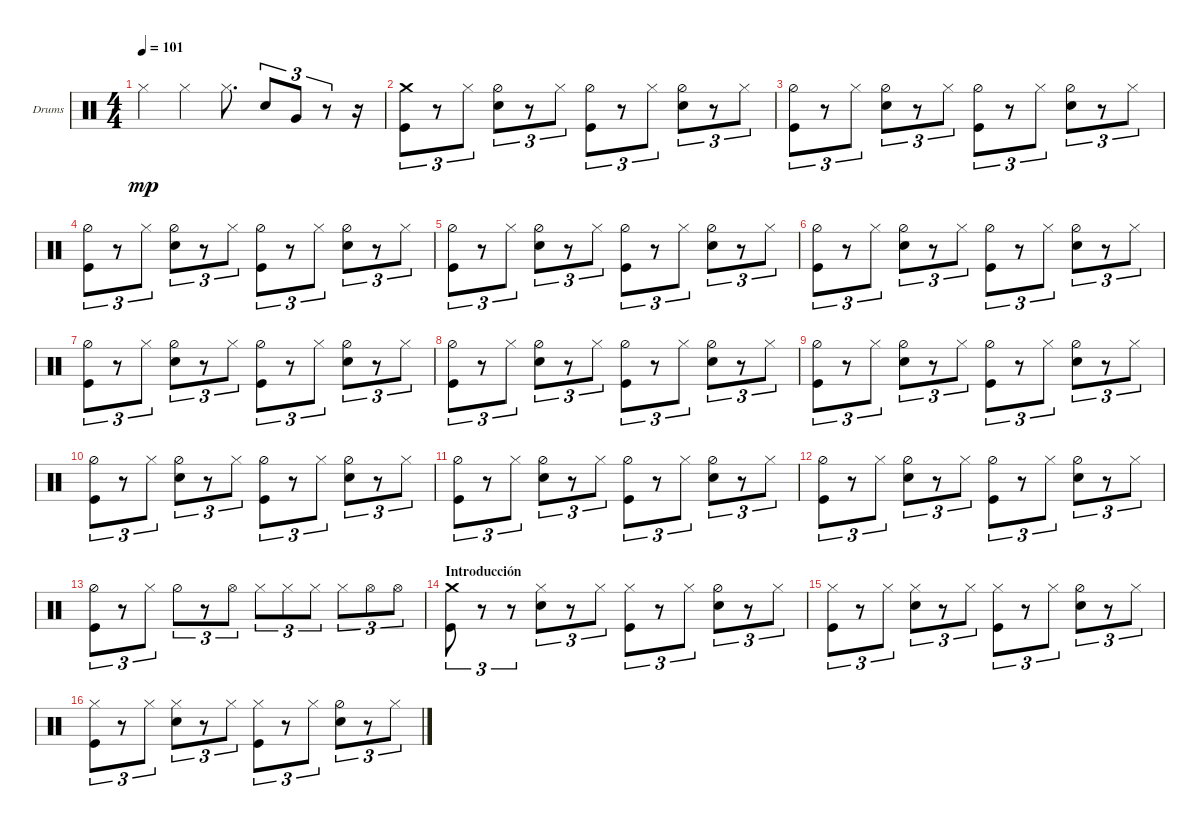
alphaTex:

\defaultSystemsLayout 4
\bracketExtendMode groupsimilarinstruments
\firstSystemTrackNameOrientation horizontal
\otherSystemsTrackNameOrientation horizontal
\track ("Drumkit" "Drums") {instrument percussion}
\staff {score}
\articulation defaults
\ts (4 4)
\tempo 101
\clef neutral
\scale
0.472222
\ks c "Hi-Hat (closed)".4{dy mp} "Hi-Hat (closed)".4 "Hi-Hat (closed)".8{d} "Snare (hit) 2".8{tu (3 2)} "Very Low Tom (hit)".8{tu (3 2)}
r.8{tu (3 2)} r.16 |
\scale
0.333333 ("Kick (hit)" "Crash medium (hit)").8{tu (3 2)} r.8{tu (3 2)} "Hi-Hat (closed)".8{tu (3 2)} ("Snare (hit) 2" "Hi-Hat (half)").8{tu (3 2)} r.8{tu (3 2)} "Hi-Hat (closed)".8{tu (3 2)} ("Hi-Hat (half)" "Kick (hit)").8{tu (3 2)} r.8{tu (3 2)} "Hi-Hat (closed)".8{tu (3 2)} ("Hi-Hat (half)" "Snare (hit) 2").8{tu (3 2)} r.8{tu (3 2)} "Hi-Hat (closed)".8{tu (3 2)} |
\scale
0.333333 ("Kick (hit)" "Hi-Hat (half)").8{tu (3 2)} r.8{tu (3 2)} "Hi-Hat (closed)".8{tu (3 2)} ("Snare (hit) 2" "Hi-Hat (half)").8{tu (3 2)} r.8{tu (3 2)} "Hi-Hat (closed)".8{tu (3 2)} ("Hi-Hat (half)" "Kick (hit)").8{tu (3 2)} r.8{tu (3 2)} "Hi-Hat (closed)".8{tu (3 2)} ("Hi-Hat (half)" "Snare (hit) 2").8{tu (3 2)} r.8{tu (3 2)} "Hi-Hat (closed)".8{tu (3 2)} |
\scale
0.333333 ("Kick (hit)" "Hi-Hat (half)").8{tu (3 2)} r.8{tu (3 2)} "Hi-Hat (closed)".8{tu (3 2)} ("Snare (hit) 2" "Hi-Hat (half)").8{tu (3 2)} r.8{tu (3 2)} "Hi-Hat (closed)".8{tu (3 2)} ("Hi-Hat (half)" "Kick (hit)").8{tu (3 2)} r.8{tu (3 2)} "Hi-Hat (closed)".8{tu (3 2)} ("Hi-Hat (half)" "Snare (hit) 2").8{tu (3 2)} r.8{tu (3 2)} "Hi-Hat (closed)".8{tu (3 2)} |
("Kick (hit)" "Hi-Hat (half)").8{tu (3 2)} r.8{tu (3 2)} "Hi-Hat (closed)".8{tu (3 2)} ("Snare (hit) 2" "Hi-Hat (half)").8{tu (3 2)} r.8{tu (3 2)} "Hi-Hat (closed)".8{tu (3 2)} ("Hi-Hat (half)" "Kick (hit)").8{tu (3 2)} r.8{tu (3 2)} "Hi-Hat (closed)".8{tu (3 2)} ("Hi-Hat (half)" "Snare (hit) 2").8{tu (3 2)} r.8{tu (3 2)} "Hi-Hat (closed)".8{tu (3 2)} |
("Kick (hit)" "Hi-Hat (half)").8{tu (3 2)} r.8{tu (3 2)} "Hi-Hat (closed)".8{tu (3 2)} ("Snare (hit) 2" "Hi-Hat (half)").8{tu (3 2)} r.8{tu (3 2)} "Hi-Hat (closed)".8{tu (3 2)} ("Hi-Hat (half)" "Kick (hit)").8{tu (3 2)} r.8{tu (3 2)} "Hi-Hat (closed)".8{tu (3 2)} ("Hi-Hat (half)" "Snare (hit) 2").8{tu (3 2)} r.8{tu (3 2)} "Hi-Hat (closed)".8{tu (3 2)} |
("Kick (hit)" "Hi-Hat (half)").8{tu (3 2)} r.8{tu (3 2)} "Hi-Hat (closed)".8{tu (3 2)} ("Snare (hit) 2" "Hi-Hat (half)").8{tu (3 2)} r.8{tu (3 2)} "Hi-Hat (closed)".8{tu (3 2)} ("Hi-Hat (half)" "Kick (hit)").8{tu (3 2)} r.8{tu (3 2)} "Hi-Hat (closed)".8{tu (3 2)} ("Hi-Hat (half)" "Snare (hit) 2").8{tu (3 2)} r.8{tu (3 2)} "Hi-Hat (closed)".8{tu (3 2)} |
("Kick (hit)" "Hi-Hat (half)").8{tu (3 2)} r.8{tu (3 2)} "Hi-Hat (closed)".8{tu (3 2)} ("Snare (hit) 2" "Hi-Hat (half)").8{tu (3 2)} r.8{tu (3 2)} "Hi-Hat (closed)".8{tu (3 2)} ("Hi-Hat (half)" "Kick (hit)").8{tu (3 2)} r.8{tu (3 2)} "Hi-Hat (closed)".8{tu (3 2)} ("Hi-Hat (half)" "Snare (hit) 2").8{tu (3 2)} r.8{tu (3 2)} "Hi-Hat (closed)".8{tu (3 2)} |
("Kick (hit)" "Hi-Hat (half)").8{tu (3 2)} r.8{tu (3 2)} "Hi-Hat (closed)".8{tu (3 2)} ("Snare (hit) 2" "Hi-Hat (half)").8{tu (3 2)} r.8{tu (3 2)} "Hi-Hat (closed)".8{tu (3 2)} ("Hi-Hat (half)" "Kick (hit)").8{tu (3 2)} r.8{tu (3 2)} "Hi-Hat (closed)".8{tu (3 2)} ("Hi-Hat (half)" "Snare (hit) 2").8{tu (3 2)} r.8{tu (3 2)} "Hi-Hat (closed)".8{tu (3 2)} |
("Kick (hit)" "Hi-Hat (half)").8{tu (3 2)} r.8{tu (3 2)} "Hi-Hat (closed)".8{tu (3 2)} ("Snare (hit) 2" "Hi-Hat (half)").8{tu (3 2)} r.8{tu (3 2)} "Hi-Hat (closed)".8{tu (3 2)} ("Hi-Hat (half)" "Kick (hit)").8{tu (3 2)} r.8{tu (3 2)} "Hi-Hat (closed)".8{tu (3 2)} ("Hi-Hat (half)" "Snare (hit) 2").8{tu (3 2)} r.8{tu (3 2)} "Hi-Hat (closed)".8{tu (3 2)} |
("Kick (hit)" "Hi-Hat (half)").8{tu (3 2)} r.8{tu (3 2)} "Hi-Hat (closed)".8{tu (3 2)} ("Snare (hit) 2" "Hi-Hat (half)").8{tu (3 2)} r.8{tu (3 2)} "Hi-Hat (closed)".8{tu (3 2)} ("Hi-Hat (half)" "Kick (hit)").8{tu (3 2)} r.8{tu (3 2)} "Hi-Hat (closed)".8{tu (3 2)} ("Hi-Hat (half)" "Snare (hit) 2").8{tu (3 2)} r.8{tu (3 2)} "Hi-Hat (closed)".8{tu (3 2)} |
("Kick (hit)" "Hi-Hat (half)").8{tu (3 2)} r.8{tu (3 2)} "Hi-Hat (closed)".8{tu (3 2)} ("Snare (hit) 2" "Hi-Hat (half)").8{tu (3 2)} r.8{tu (3 2)} "Hi-Hat (closed)".8{tu (3 2)} ("Hi-Hat (half)" "Kick (hit)").8{tu (3 2)} r.8{tu (3 2)} "Hi-Hat (closed)".8{tu (3 2)} ("Hi-Hat (half)" "Snare (hit) 2").8{tu (3 2)} r.8{tu (3 2)} "Hi-Hat (closed)".8{tu (3 2)} |
("Kick (hit)" "Hi-Hat (half)").8{tu (3 2)} r.8{tu (3 2)} "Hi-Hat (closed)".8{tu (3 2)} "Hi-Hat (half)".8{tu (3 2)} r.8{tu (3 2)} "Hi-Hat (open)".8{tu (3 2)} "Hi-Hat (closed)".8{tu (3 2)} "Hi-Hat (closed)".8{tu (3 2)} "Hi-Hat (closed)".8{tu (3 2)} "Hi-Hat (closed)".8{tu (3 2)} "Hi-Hat (open)".8{tu (3 2)} "Hi-Hat (open)".8{tu (3 2)} |
\section ("" "Introducción")
("Crash medium (hit)" "Kick (hit)").8{tu (3 2)} r.8{tu (3 2)} r.8{tu (3 2)} ("Snare (hit) 2" "Hi-Hat (closed)").8{tu (3 2)} r.8{tu (3 2)} "Hi-Hat (closed)".8{tu (3 2)} ("Hi-Hat (closed)" "Kick (hit)").8{tu (3 2)} r.8{tu (3 2)} "Hi-Hat (closed)".8{tu (3 2)} ("Hi-Hat (half)" "Snare (hit) 2").8{tu (3 2)} r.8{tu (3 2)} "Hi-Hat (closed)".8{tu (3 2)} |
("Kick (hit)" "Hi-Hat (closed)").8{tu (3 2)} r.8{tu (3 2)} "Hi-Hat (closed)".8{tu (3 2)} ("Snare (hit) 2" "Hi-Hat (closed)").8{tu (3 2)} r.8{tu (3 2)} "Hi-Hat (closed)".8{tu (3 2)} ("Hi-Hat (closed)" "Kick (hit)").8{tu (3 2)} r.8{tu (3 2)} "Hi-Hat (closed)".8{tu (3 2)} ("Hi-Hat (half)" "Snare (hit) 2").8{tu (3 2)} r.8{tu (3 2)} "Hi-Hat (closed)".8{tu (3 2)} |
("Kick (hit)" "Hi-Hat (closed)").8{tu (3 2)} r.8{tu (3 2)} "Hi-Hat (closed)".8{tu (3 2)} ("Snare (hit) 2" "Hi-Hat (closed)").8{tu (3 2)} r.8{tu (3 2)} "Hi-Hat (closed)".8{tu (3 2)} ("Hi-Hat (closed)" "Kick (hit)").8{tu (3 2)} r.8{tu (3 2)} "Hi-Hat (closed)".8{tu (3 2)} ("Hi-Hat (half)" "Snare (hit) 2").8{tu (3 2)} r.8{tu (3 2)} "Hi-Hat (closed)".8{tu (3 2)}
